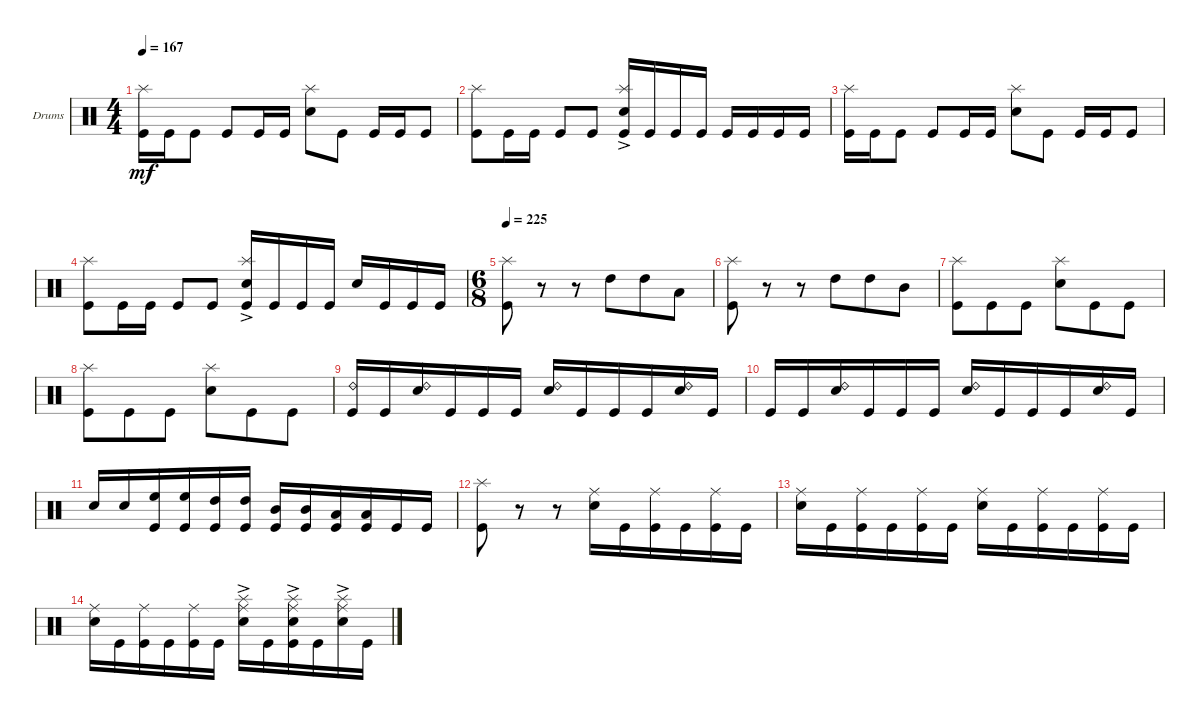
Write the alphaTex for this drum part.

\bracketExtendMode groupsimilarinstruments
\firstSystemTrackNameOrientation horizontal
\otherSystemsTrackNameOrientation horizontal
\track ("Drumkit" "Drums") {instrument percussion}
\staff {score}
\articulation defaults
\ts (4 4)
\tempo 167
\clef neutral
\ks c
("Kick (hit)" "Splash (hit)").16{dy mf} "Kick (hit)".16 "Kick (hit)".8 "Kick (hit)".8 "Kick (hit)".16 "Kick (hit)".16 ("Snare (hit) 2" "Splash (hit)").8 "Kick (hit)".8 "Kick (hit)".16 "Kick (hit)".16 "Kick (hit)".8 |
("Kick (hit)" "Splash (hit)").8 "Kick (hit)".16 "Kick (hit)".16 "Kick (hit)".8 "Kick (hit)".8 ("Snare (hit) 2"{ac} "Kick (hit)" "Splash (hit)").16 "Kick (hit)".16 "Kick (hit)".16 "Kick (hit)".16 "Kick (hit)".16 "Kick (hit)".16 "Kick (hit)".16 "Kick (hit)".16 |
("Kick (hit)" "Splash (hit)").16 "Kick (hit)".16 "Kick (hit)".8 "Kick (hit)".8 "Kick (hit)".16 "Kick (hit)".16 ("Snare (hit) 2" "Splash (hit)").8 "Kick (hit)".8 "Kick (hit)".16 "Kick (hit)".16 "Kick (hit)".8 |
("Kick (hit)" "Splash (hit)").8 "Kick (hit)".16 "Kick (hit)".16 "Kick (hit)".8 "Kick (hit)".8 ("Snare (hit) 2"{ac} "Kick (hit)" "Splash (hit)").16 "Kick (hit)".16 "Kick (hit)".16 "Kick (hit)".16 "Snare (hit) 2".16 "Kick (hit)".16 "Kick (hit)".16 "Kick (hit)".16 |
\ts (6 8)
\tempo 225
("Kick (hit)" "Splash (hit)").8 r.8 r.8 "High Tom (hit)".8 "High Tom (hit)".8 "Low Tom (hit)".8 |
("Kick (hit)" "Splash (hit)").8 r.8 r.8 "High Tom (hit)".8 "High Tom (hit)".8 "Mid Tom (hit)".8 |
("Kick (hit)" "Splash (hit)").8 "Kick (hit)".8 "Kick (hit)".8 ("Snare (hit) 2" "Splash (hit)").8 "Kick (hit)".8 "Kick (hit)".8 |
("Kick (hit)" "Splash (hit)").8 "Kick (hit)".8 "Kick (hit)".8 ("Snare (hit) 2" "Splash (hit)").8 "Kick (hit)".8 "Kick (hit)".8 |
("Kick (hit)" "Ride (bell) 2").16 "Kick (hit)".16 ("Snare (hit) 2" "Ride (bell) 2").16 "Kick (hit)".16 "Kick (hit)".16 "Kick (hit)".16 ("Snare (hit) 2" "Ride (bell) 2").16 "Kick (hit)".16 "Kick (hit)".16 "Kick (hit)".16 ("Snare (hit) 2" "Ride (bell) 2").16 "Kick (hit)".16 |
"Kick (hit)".16 "Kick (hit)".16 ("Snare (hit) 2" "Ride (bell) 2").16 "Kick (hit)".16 "Kick (hit)".16 "Kick (hit)".16 ("Snare (hit) 2" "Ride (bell) 2").16 "Kick (hit)".16 "Kick (hit)".16 "Kick (hit)".16 ("Snare (hit) 2" "Ride (bell) 2").16 "Kick (hit)".16 |
"Snare (hit) 2".16 "Snare (hit) 2".16 ("Kick (hit)" "High Floor Tom (hit)").16 ("Kick (hit)" "High Floor Tom (hit)").16 ("Kick (hit)" "High Tom (hit)").16 ("Kick (hit)" "High Tom (hit)").16 ("Kick (hit)" "Mid Tom (hit)").16 ("Kick (hit)" "Mid Tom (hit)").16 ("Kick (hit)" "Low Tom (hit)").16 ("Kick (hit)" "Low Tom (hit)").16 "Kick (hit)".16 "Kick (hit)".16 |
("Kick (hit)" "Splash (hit)").8 r.8 r.8 ("Snare (hit) 2" "Ride (middle)").16 "Kick (hit)".16 ("Kick (hit)" "Ride (middle)").16 "Kick (hit)".16 ("Kick (hit)" "Ride (middle)").16 "Kick (hit)".16 |
("Snare (hit) 2" "Ride (middle)").16 "Kick (hit)".16 ("Kick (hit)" "Ride (middle)").16 "Kick (hit)".16 ("Kick (hit)" "Ride (middle)").16 "Kick (hit)".16 ("Snare (hit) 2" "Ride (middle)").16 "Kick (hit)".16 ("Kick (hit)" "Ride (middle)").16 "Kick (hit)".16 ("Kick (hit)" "Ride (middle)").16 "Kick (hit)".16 |
("Snare (hit) 2" "Ride (middle)").16 "Kick (hit)".16 ("Kick (hit)" "Ride (middle)").16 "Kick (hit)".16 ("Kick (hit)" "Ride (middle)").16 "Kick (hit)".16 ("Snare (hit) 2"{ac} "Ride (middle)" "Splash (hit)").16 "Kick (hit)".16 ("Kick (hit)" "Ride (middle)" "Snare (hit) 2"{ac} "Splash (hit)").16 "Kick (hit)".16 ("Ride (middle)" "Snare (hit) 2"{ac} "Splash (hit)").16 "Kick (hit)".16
